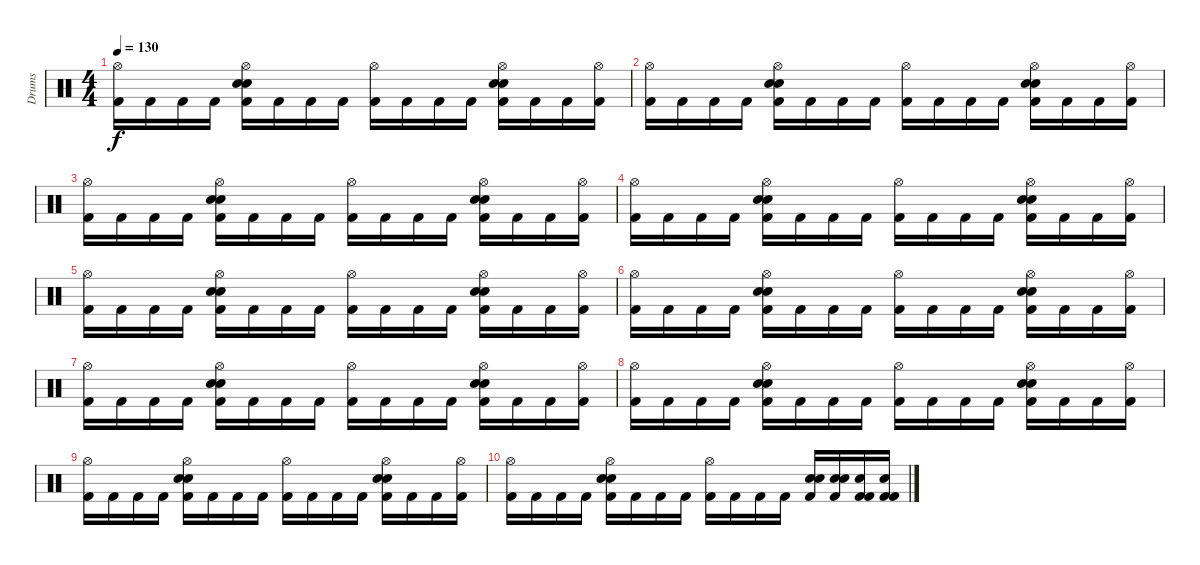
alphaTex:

\track ("Drums" "Drums") {instrument percussion}
\staff {score}
\articulation defaults
\ts (4 4)
\tempo 130
\clef neutral
\ks c
("Hi-Hat (open)" "Kick (hit) 2").16{dy f} "Kick (hit) 2".16 "Kick (hit) 2".16 "Kick (hit) 2".16 ("Hi-Hat (open)" "Snare (hit) 2" "Electric Snare (hit)" "Kick (hit) 2").16 "Kick (hit) 2".16 "Kick (hit) 2".16 "Kick (hit) 2".16 ("Hi-Hat (open)" "Kick (hit) 2").16 "Kick (hit) 2".16 "Kick (hit) 2".16 "Kick (hit) 2".16 ("Hi-Hat (open)" "Snare (hit) 2" "Electric Snare (hit)" "Kick (hit) 2").16 "Kick (hit) 2".16 "Kick (hit) 2".16 ("Hi-Hat (open)" "Kick (hit) 2").16 |
("Hi-Hat (open)" "Kick (hit) 2").16 "Kick (hit) 2".16 "Kick (hit) 2".16 "Kick (hit) 2".16 ("Hi-Hat (open)" "Snare (hit) 2" "Electric Snare (hit)" "Kick (hit) 2").16 "Kick (hit) 2".16 "Kick (hit) 2".16 "Kick (hit) 2".16 ("Hi-Hat (open)" "Kick (hit) 2").16 "Kick (hit) 2".16 "Kick (hit) 2".16 "Kick (hit) 2".16 ("Hi-Hat (open)" "Snare (hit) 2" "Electric Snare (hit)" "Kick (hit) 2").16 "Kick (hit) 2".16 "Kick (hit) 2".16 ("Hi-Hat (open)" "Kick (hit) 2").16 |
("Hi-Hat (open)" "Kick (hit) 2").16 "Kick (hit) 2".16 "Kick (hit) 2".16 "Kick (hit) 2".16 ("Hi-Hat (open)" "Snare (hit) 2" "Electric Snare (hit)" "Kick (hit) 2").16 "Kick (hit) 2".16 "Kick (hit) 2".16 "Kick (hit) 2".16 ("Hi-Hat (open)" "Kick (hit) 2").16 "Kick (hit) 2".16 "Kick (hit) 2".16 "Kick (hit) 2".16 ("Hi-Hat (open)" "Snare (hit) 2" "Electric Snare (hit)" "Kick (hit) 2").16 "Kick (hit) 2".16 "Kick (hit) 2".16 ("Hi-Hat (open)" "Kick (hit) 2").16 |
("Hi-Hat (open)" "Kick (hit) 2").16 "Kick (hit) 2".16 "Kick (hit) 2".16 "Kick (hit) 2".16 ("Hi-Hat (open)" "Snare (hit) 2" "Electric Snare (hit)" "Kick (hit) 2").16 "Kick (hit) 2".16 "Kick (hit) 2".16 "Kick (hit) 2".16 ("Hi-Hat (open)" "Kick (hit) 2").16 "Kick (hit) 2".16 "Kick (hit) 2".16 "Kick (hit) 2".16 ("Hi-Hat (open)" "Snare (hit) 2" "Electric Snare (hit)" "Kick (hit) 2").16 "Kick (hit) 2".16 "Kick (hit) 2".16 ("Hi-Hat (open)" "Kick (hit) 2").16 |
("Hi-Hat (open)" "Kick (hit) 2").16 "Kick (hit) 2".16 "Kick (hit) 2".16 "Kick (hit) 2".16 ("Hi-Hat (open)" "Snare (hit) 2" "Electric Snare (hit)" "Kick (hit) 2").16 "Kick (hit) 2".16 "Kick (hit) 2".16 "Kick (hit) 2".16 ("Hi-Hat (open)" "Kick (hit) 2").16 "Kick (hit) 2".16 "Kick (hit) 2".16 "Kick (hit) 2".16 ("Hi-Hat (open)" "Snare (hit) 2" "Electric Snare (hit)" "Kick (hit) 2").16 "Kick (hit) 2".16 "Kick (hit) 2".16 ("Hi-Hat (open)" "Kick (hit) 2").16 |
("Hi-Hat (open)" "Kick (hit) 2").16 "Kick (hit) 2".16 "Kick (hit) 2".16 "Kick (hit) 2".16 ("Hi-Hat (open)" "Snare (hit) 2" "Electric Snare (hit)" "Kick (hit) 2").16 "Kick (hit) 2".16 "Kick (hit) 2".16 "Kick (hit) 2".16 ("Hi-Hat (open)" "Kick (hit) 2").16 "Kick (hit) 2".16 "Kick (hit) 2".16 "Kick (hit) 2".16 ("Hi-Hat (open)" "Snare (hit) 2" "Electric Snare (hit)" "Kick (hit) 2").16 "Kick (hit) 2".16 "Kick (hit) 2".16 ("Hi-Hat (open)" "Kick (hit) 2").16 |
("Hi-Hat (open)" "Kick (hit) 2").16 "Kick (hit) 2".16 "Kick (hit) 2".16 "Kick (hit) 2".16 ("Hi-Hat (open)" "Snare (hit) 2" "Electric Snare (hit)" "Kick (hit) 2").16 "Kick (hit) 2".16 "Kick (hit) 2".16 "Kick (hit) 2".16 ("Hi-Hat (open)" "Kick (hit) 2").16 "Kick (hit) 2".16 "Kick (hit) 2".16 "Kick (hit) 2".16 ("Hi-Hat (open)" "Snare (hit) 2" "Electric Snare (hit)" "Kick (hit) 2").16 "Kick (hit) 2".16 "Kick (hit) 2".16 ("Hi-Hat (open)" "Kick (hit) 2").16 |
("Hi-Hat (open)" "Kick (hit) 2").16 "Kick (hit) 2".16 "Kick (hit) 2".16 "Kick (hit) 2".16 ("Hi-Hat (open)" "Snare (hit) 2" "Electric Snare (hit)" "Kick (hit) 2").16 "Kick (hit) 2".16 "Kick (hit) 2".16 "Kick (hit) 2".16 ("Hi-Hat (open)" "Kick (hit) 2").16 "Kick (hit) 2".16 "Kick (hit) 2".16 "Kick (hit) 2".16 ("Hi-Hat (open)" "Snare (hit) 2" "Electric Snare (hit)" "Kick (hit) 2").16 "Kick (hit) 2".16 "Kick (hit) 2".16 ("Hi-Hat (open)" "Kick (hit) 2").16 |
("Hi-Hat (open)" "Kick (hit) 2").16 "Kick (hit) 2".16 "Kick (hit) 2".16 "Kick (hit) 2".16 ("Hi-Hat (open)" "Snare (hit) 2" "Electric Snare (hit)" "Kick (hit) 2").16 "Kick (hit) 2".16 "Kick (hit) 2".16 "Kick (hit) 2".16 ("Hi-Hat (open)" "Kick (hit) 2").16 "Kick (hit) 2".16 "Kick (hit) 2".16 "Kick (hit) 2".16 ("Hi-Hat (open)" "Snare (hit) 2" "Electric Snare (hit)" "Kick (hit) 2").16 "Kick (hit) 2".16 "Kick (hit) 2".16 ("Hi-Hat (open)" "Kick (hit) 2").16 |
("Hi-Hat (open)" "Kick (hit) 2").16 "Kick (hit) 2".16 "Kick (hit) 2".16 "Kick (hit) 2".16 ("Hi-Hat (open)" "Snare (hit) 2" "Electric Snare (hit)" "Kick (hit) 2").16 "Kick (hit) 2".16 "Kick (hit) 2".16 "Kick (hit) 2".16 ("Hi-Hat (open)" "Kick (hit) 2").16 "Kick (hit) 2".16 "Kick (hit) 2".16 "Kick (hit) 2".16 ("Snare (hit) 2" "Electric Snare (hit)" "Kick (hit) 2").16 ("Snare (hit) 2" "Electric Snare (hit)" "Kick (hit) 2").16 ("Kick (hit) 2" "Electric Snare (hit)" "Kick (hit) 2").16 ("Kick (hit) 2" "Electric Snare (hit)" "Kick (hit) 2").16
